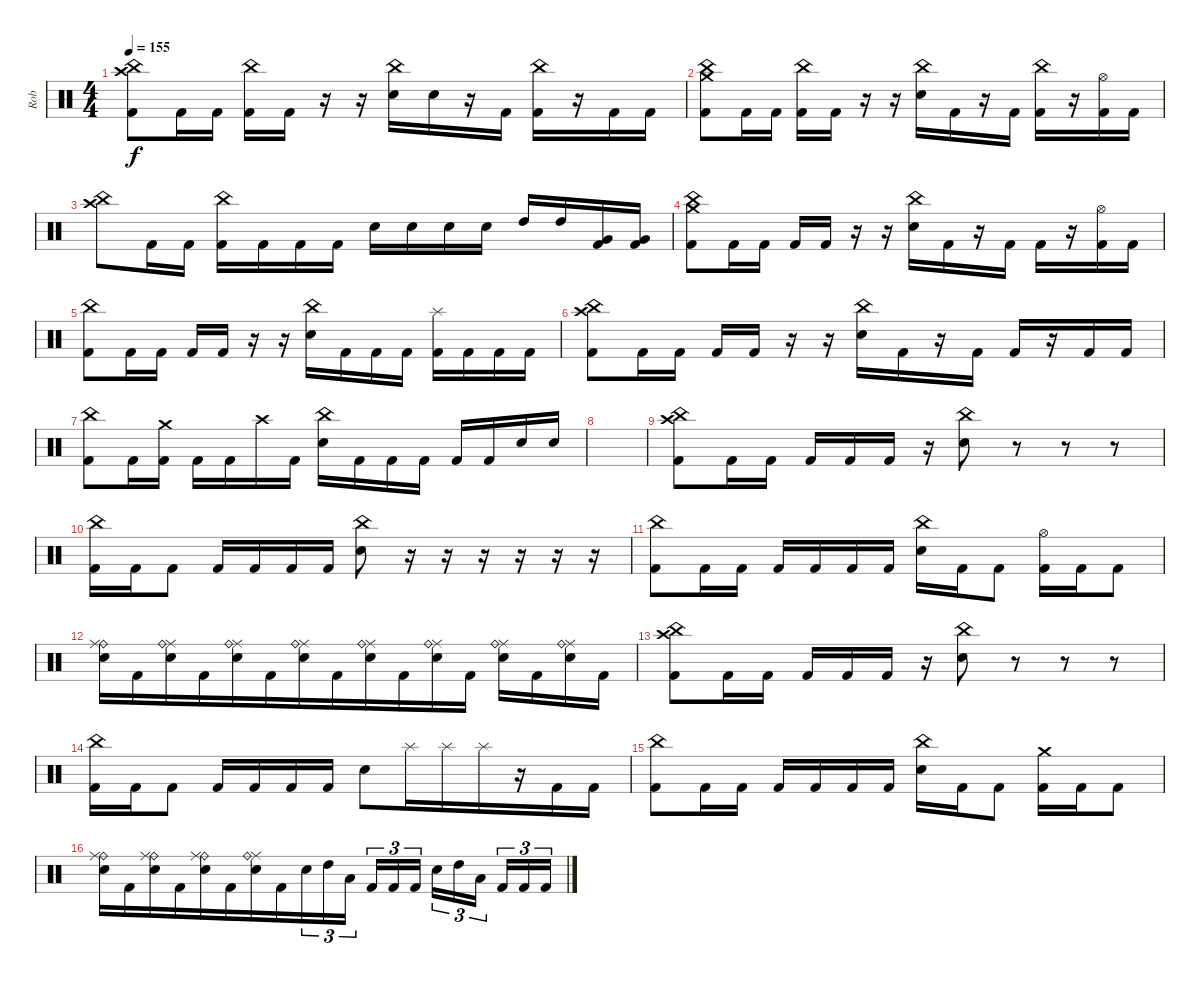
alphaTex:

\track ("Rob" "Rob") {instrument percussion}
\staff {score}
\articulation defaults
\ts (4 4)
\tempo 155
\clef neutral
\ks c
("Crash high (hit)" "China (hit)" "Kick (hit) 2").8{dy f} "Kick (hit) 2".16 "Kick (hit) 2".16 ("China (hit)" "Kick (hit) 2").16 "Kick (hit) 2".16 r.16 r.16 ("China (hit)" "Electric Snare (hit)").16 "Electric Snare (hit)".16 r.16 "Kick (hit) 2".16 ("China (hit)" "Kick (hit) 2").16 r.16 "Kick (hit) 2".16 "Kick (hit) 2".16 |
("Crash medium (hit)" "China (hit)" "Kick (hit) 2").8 "Kick (hit) 2".16 "Kick (hit) 2".16 ("China (hit)" "Kick (hit) 2").16 "Kick (hit) 2".16 r.16 r.16 ("China (hit)" "Electric Snare (hit)").16 "Kick (hit) 2".16 r.16 "Kick (hit) 2".16 ("China (hit)" "Kick (hit) 2").16 r.16 ("Hi-Hat (open)" "Kick (hit) 2").16 "Kick (hit) 2".16 |
("China (hit)" "Crash high (hit)").8 "Kick (hit) 2".16 "Kick (hit) 2".16 ("China (hit)" "Kick (hit) 2").16 "Kick (hit) 2".16 "Kick (hit) 2".16 "Kick (hit) 2".16 "Electric Snare (hit)".16 "Electric Snare (hit)".16 "Electric Snare (hit)".16 "Electric Snare (hit)".16 "High Tom (hit)".16 "High Tom (hit)".16 ("Kick (hit) 2" "Very Low Tom (hit)").16 ("Kick (hit) 2" "Very Low Tom (hit)").16 |
("Crash medium (hit)" "China (hit)" "Kick (hit) 2").8 "Kick (hit) 2".16 "Kick (hit) 2".16 "Kick (hit) 2".16 "Kick (hit) 2".16 r.16 r.16 ("China (hit)" "Electric Snare (hit)").16 "Kick (hit) 2".16 r.16 "Kick (hit) 2".16 "Kick (hit) 2".16 r.16 ("Hi-Hat (open)" "Kick (hit) 2").16 "Kick (hit) 2".16 |
("China (hit)" "Kick (hit) 2").8 "Kick (hit) 2".16 "Kick (hit) 2".16 "Kick (hit) 2".16 "Kick (hit) 2".16 r.16 r.16 ("China (hit)" "Electric Snare (hit)").16 "Kick (hit) 2".16 "Kick (hit) 2".16 "Kick (hit) 2".16 ("Splash (hit)" "Kick (hit) 2").16 "Kick (hit) 2".16 "Kick (hit) 2".16 "Kick (hit) 2".16 |
("Crash high (hit)" "China (hit)" "Kick (hit) 2").8 "Kick (hit) 2".16 "Kick (hit) 2".16 "Kick (hit) 2".16 "Kick (hit) 2".16 r.16 r.16 ("China (hit)" "Electric Snare (hit)").16 "Kick (hit) 2".16 r.16 "Kick (hit) 2".16 "Kick (hit) 2".16 r.16 "Kick (hit) 2".16 "Kick (hit) 2".16 |
("China (hit)" "Kick (hit) 2").8 "Kick (hit) 2".16 ("Crash medium (hit)" "Kick (hit) 2").16 "Kick (hit) 2".16 "Kick (hit) 2".16 "Crash high (hit)".16 "Kick (hit) 2".16 ("Electric Snare (hit)" "China (hit)").16 "Kick (hit) 2".16 "Kick (hit) 2".16 "Kick (hit) 2".16 "Kick (hit) 2".16 "Kick (hit) 2".16{beam merge} "Electric Snare (hit)".16 "Electric Snare (hit)".16 |
|
("China (hit)" "Crash high (hit)" "Kick (hit) 2").8 "Kick (hit) 2".16 "Kick (hit) 2".16 "Kick (hit) 2".16 "Kick (hit) 2".16 "Kick (hit) 2".16 r.16 ("China (hit)" "Electric Snare (hit)").8 r.8 r.8{beam merge} r.8 |
("Kick (hit) 2" "China (hit)").16{beam merge} "Kick (hit) 2".16 "Kick (hit) 2".8 "Kick (hit) 2".16 "Kick (hit) 2".16 "Kick (hit) 2".16{beam merge} "Kick (hit) 2".16 ("Electric Snare (hit)" "China (hit)").8 r.16{beam merge} r.16{beam merge} r.16 r.16 r.16 r.16 |
("China (hit)" "Kick (hit) 2").8 "Kick (hit) 2".16 "Kick (hit) 2".16 "Kick (hit) 2".16 "Kick (hit) 2".16 "Kick (hit) 2".16 "Kick (hit) 2".16 ("China (hit)" "Electric Snare (hit)").16 "Kick (hit) 2".16 "Kick (hit) 2".8 ("Hi-Hat (open)" "Kick (hit) 2").16 "Kick (hit) 2".16 "Kick (hit) 2".8 |
("Ride (bell)" "Ride (middle)" "Electric Snare (hit)").16 "Kick (hit) 2".16 ("Ride (middle)" "Ride (bell)" "Electric Snare (hit)").16 "Kick (hit) 2".16{beam merge} ("Ride (middle)" "Ride (bell)" "Electric Snare (hit)").16 "Kick (hit) 2".16{beam merge} ("Ride (middle)" "Ride (bell)" "Electric Snare (hit)").16 "Kick (hit) 2".16{beam merge} ("Ride (middle)" "Ride (bell)" "Electric Snare (hit)").16 "Kick (hit) 2".16{beam merge} ("Ride (middle)" "Ride (bell)" "Electric Snare (hit)").16{beam merge} "Kick (hit) 2".16 ("Ride (middle)" "Ride (bell)" "Electric Snare (hit)").16 "Kick (hit) 2".16{beam merge} ("Ride (middle)" "Ride (bell)" "Electric Snare (hit)").16{beam merge} "Kick (hit) 2".16 |
("China (hit)" "Crash high (hit)" "Kick (hit) 2").8 "Kick (hit) 2".16 "Kick (hit) 2".16 "Kick (hit) 2".16 "Kick (hit) 2".16 "Kick (hit) 2".16 r.16 ("China (hit)" "Electric Snare (hit)").8 r.8 r.8{beam merge} r.8 |
("Kick (hit) 2" "China (hit)").16{beam merge} "Kick (hit) 2".16 "Kick (hit) 2".8 "Kick (hit) 2".16 "Kick (hit) 2".16 "Kick (hit) 2".16{beam merge} "Kick (hit) 2".16 "Electric Snare (hit)".8 "Splash (hit)".16{beam merge} "Splash (hit)".16{beam merge} "Splash (hit)".16 r.16 "Kick (hit) 2".16 "Kick (hit) 2".16 |
("China (hit)" "Kick (hit) 2").8 "Kick (hit) 2".16 "Kick (hit) 2".16 "Kick (hit) 2".16 "Kick (hit) 2".16 "Kick (hit) 2".16 "Kick (hit) 2".16 ("China (hit)" "Electric Snare (hit)").16 "Kick (hit) 2".16 "Kick (hit) 2".8 ("Crash medium (hit)" "Kick (hit) 2").16 "Kick (hit) 2".16 "Kick (hit) 2".8 |
("Ride (bell)" "Ride (middle)" "Electric Snare (hit)").16 "Kick (hit) 2".16 ("Ride (bell)" "Ride (middle)" "Electric Snare (hit)").16 "Kick (hit) 2".16{beam merge} ("Ride (bell)" "Ride (middle)" "Electric Snare (hit)").16 "Kick (hit) 2".16{beam merge} ("Ride (middle)" "Ride (bell)" "Electric Snare (hit)").16 "Kick (hit) 2".16{beam merge} "Electric Snare (hit)".16{tu (3 2)} "High Tom (hit)".16{tu (3 2) beam merge} "Low Tom (hit)".16{tu (3 2) beam splitsecondary} "Kick (hit) 2".16{tu (3 2)} "Kick (hit) 2".16{tu (3 2)} "Kick (hit) 2".16{tu (3 2)} "Electric Snare (hit)".16{tu (3 2)} "High Tom (hit)".16{tu (3 2)} "Low Tom (hit)".16{tu (3 2) beam splitsecondary} "Kick (hit) 2".16{tu (3 2)} "Kick (hit) 2".16{tu (3 2)} "Kick (hit) 2".16{tu (3 2)}
